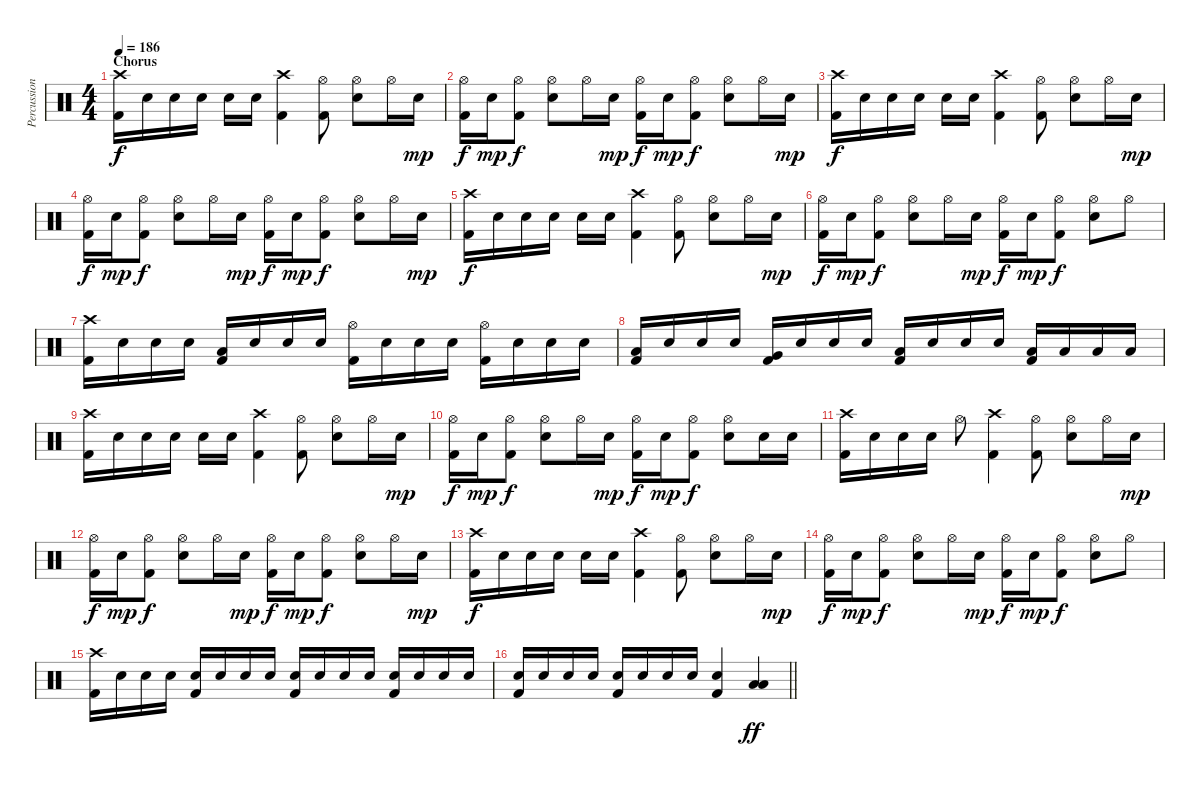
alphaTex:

\track ("Percussion" "Percussion") {instrument percussion}
\staff {score}
\articulation defaults
\ts (4 4)
\section ("" "Chorus")
\tempo 186
\clef neutral
\ks c
("Crash high (hit)" "Kick (hit) 2").16{dy f} "Electric Snare (hit)".16 "Electric Snare (hit)".16 "Electric Snare (hit)".16 "Electric Snare (hit)".16 "Electric Snare (hit)".16 ("Crash high (hit)" "Kick (hit) 2").4 ("Hi-Hat (open)" "Kick (hit) 2").8 ("Hi-Hat (open)" "Electric Snare (hit)").8 "Hi-Hat (open)".16 "Electric Snare (hit)".16{dy mp} |
("Hi-Hat (open)" "Kick (hit) 2").16{dy f} "Electric Snare (hit)".16{dy mp} ("Hi-Hat (open)" "Kick (hit) 2").8{dy f} ("Hi-Hat (open)" "Electric Snare (hit)").8 "Hi-Hat (open)".16 "Electric Snare (hit)".16{dy mp} ("Hi-Hat (open)" "Kick (hit) 2").16{dy f} "Electric Snare (hit)".16{dy mp} ("Hi-Hat (open)" "Kick (hit) 2").8{dy f} ("Hi-Hat (open)" "Electric Snare (hit)").8 "Hi-Hat (open)".16 "Electric Snare (hit)".16{dy mp} |
("Crash high (hit)" "Kick (hit) 2").16{dy f} "Electric Snare (hit)".16 "Electric Snare (hit)".16 "Electric Snare (hit)".16 "Electric Snare (hit)".16 "Electric Snare (hit)".16 ("Crash high (hit)" "Kick (hit) 2").4 ("Hi-Hat (open)" "Kick (hit) 2").8 ("Hi-Hat (open)" "Electric Snare (hit)").8 "Hi-Hat (open)".16 "Electric Snare (hit)".16{dy mp} |
("Hi-Hat (open)" "Kick (hit) 2").16{dy f} "Electric Snare (hit)".16{dy mp} ("Hi-Hat (open)" "Kick (hit) 2").8{dy f} ("Hi-Hat (open)" "Electric Snare (hit)").8 "Hi-Hat (open)".16 "Electric Snare (hit)".16{dy mp} ("Hi-Hat (open)" "Kick (hit) 2").16{dy f} "Electric Snare (hit)".16{dy mp} ("Hi-Hat (open)" "Kick (hit) 2").8{dy f} ("Hi-Hat (open)" "Electric Snare (hit)").8 "Hi-Hat (open)".16 "Electric Snare (hit)".16{dy mp} |
("Crash high (hit)" "Kick (hit) 2").16{dy f} "Electric Snare (hit)".16 "Electric Snare (hit)".16 "Electric Snare (hit)".16 "Electric Snare (hit)".16 "Electric Snare (hit)".16 ("Crash high (hit)" "Kick (hit) 2").4 ("Hi-Hat (open)" "Kick (hit) 2").8 ("Hi-Hat (open)" "Electric Snare (hit)").8 "Hi-Hat (open)".16 "Electric Snare (hit)".16{dy mp} |
("Hi-Hat (open)" "Kick (hit) 2").16{dy f} "Electric Snare (hit)".16{dy mp} ("Hi-Hat (open)" "Kick (hit) 2").8{dy f} ("Hi-Hat (open)" "Electric Snare (hit)").8 "Hi-Hat (open)".16 "Electric Snare (hit)".16{dy mp} ("Hi-Hat (open)" "Kick (hit) 2").16{dy f} "Electric Snare (hit)".16{dy mp} ("Hi-Hat (open)" "Kick (hit) 2").8{dy f} ("Hi-Hat (open)" "Electric Snare (hit)").8 "Hi-Hat (open)".8 |
("Crash high (hit)" "Kick (hit) 2").16 "Electric Snare (hit)".16 "Electric Snare (hit)".16 "Electric Snare (hit)".16 ("Low Tom (hit)" "Kick (hit) 2").16 "Electric Snare (hit)".16 "Electric Snare (hit)".16 "Electric Snare (hit)".16 ("Hi-Hat (open)" "Kick (hit) 2").16 "Electric Snare (hit)".16 "Electric Snare (hit)".16 "Electric Snare (hit)".16 ("Hi-Hat (open)" "Kick (hit) 2").16 "Electric Snare (hit)".16 "Electric Snare (hit)".16 "Electric Snare (hit)".16 |
("Low Tom (hit)" "Kick (hit) 2").16 "Electric Snare (hit)".16 "Electric Snare (hit)".16 "Electric Snare (hit)".16 ("Very Low Tom (hit)" "Kick (hit) 2").16 "Electric Snare (hit)".16 "Electric Snare (hit)".16 "Electric Snare (hit)".16 ("Low Floor Tom (hit)" "Kick (hit) 2").16 "Electric Snare (hit)".16 "Electric Snare (hit)".16 "Electric Snare (hit)".16 ("Low Floor Tom (hit)" "Kick (hit) 2").16 "Low Floor Tom (hit)".16 "Low Floor Tom (hit)".16 "Low Floor Tom (hit)".16 |
("Crash high (hit)" "Kick (hit) 2").16 "Electric Snare (hit)".16 "Electric Snare (hit)".16 "Electric Snare (hit)".16 "Electric Snare (hit)".16 "Electric Snare (hit)".16 ("Crash high (hit)" "Kick (hit) 2").4 ("Hi-Hat (open)" "Kick (hit) 2").8 ("Hi-Hat (open)" "Electric Snare (hit)").8 "Hi-Hat (open)".16 "Electric Snare (hit)".16{dy mp} |
("Hi-Hat (open)" "Kick (hit) 2").16{dy f} "Electric Snare (hit)".16{dy mp} ("Hi-Hat (open)" "Kick (hit) 2").8{dy f} ("Hi-Hat (open)" "Electric Snare (hit)").8 "Hi-Hat (open)".16 "Electric Snare (hit)".16{dy mp} ("Hi-Hat (open)" "Kick (hit) 2").16{dy f} "Electric Snare (hit)".16{dy mp} ("Hi-Hat (open)" "Kick (hit) 2").8{dy f} ("Hi-Hat (open)" "Electric Snare (hit)").8 "Electric Snare (hit)".16 "Electric Snare (hit)".16 |
("Crash high (hit)" "Kick (hit) 2").16 "Electric Snare (hit)".16 "Electric Snare (hit)".16 "Electric Snare (hit)".16 "Hi-Hat (open)".8 ("Crash high (hit)" "Kick (hit) 2").4 ("Hi-Hat (open)" "Kick (hit) 2").8 ("Hi-Hat (open)" "Electric Snare (hit)").8 "Hi-Hat (open)".16 "Electric Snare (hit)".16{dy mp} |
("Hi-Hat (open)" "Kick (hit) 2").16{dy f} "Electric Snare (hit)".16{dy mp} ("Hi-Hat (open)" "Kick (hit) 2").8{dy f} ("Hi-Hat (open)" "Electric Snare (hit)").8 "Hi-Hat (open)".16 "Electric Snare (hit)".16{dy mp} ("Hi-Hat (open)" "Kick (hit) 2").16{dy f} "Electric Snare (hit)".16{dy mp} ("Hi-Hat (open)" "Kick (hit) 2").8{dy f} ("Hi-Hat (open)" "Electric Snare (hit)").8 "Hi-Hat (open)".16 "Electric Snare (hit)".16{dy mp} |
("Crash high (hit)" "Kick (hit) 2").16{dy f} "Electric Snare (hit)".16 "Electric Snare (hit)".16 "Electric Snare (hit)".16 "Electric Snare (hit)".16 "Electric Snare (hit)".16 ("Crash high (hit)" "Kick (hit) 2").4 ("Hi-Hat (open)" "Kick (hit) 2").8 ("Hi-Hat (open)" "Electric Snare (hit)").8 "Hi-Hat (open)".16 "Electric Snare (hit)".16{dy mp} |
("Hi-Hat (open)" "Kick (hit) 2").16{dy f} "Electric Snare (hit)".16{dy mp} ("Hi-Hat (open)" "Kick (hit) 2").8{dy f} ("Hi-Hat (open)" "Electric Snare (hit)").8 "Hi-Hat (open)".16 "Electric Snare (hit)".16{dy mp} ("Hi-Hat (open)" "Kick (hit) 2").16{dy f} "Electric Snare (hit)".16{dy mp} ("Hi-Hat (open)" "Kick (hit) 2").8{dy f} ("Hi-Hat (open)" "Electric Snare (hit)").8 "Hi-Hat (open)".8 |
("Crash high (hit)" "Kick (hit) 2").16 "Electric Snare (hit)".16 "Electric Snare (hit)".16 "Electric Snare (hit)".16 ("Electric Snare (hit)" "Kick (hit) 2").16 "Electric Snare (hit)".16 "Electric Snare (hit)".16 "Electric Snare (hit)".16 ("Electric Snare (hit)" "Kick (hit) 2").16 "Electric Snare (hit)".16 "Electric Snare (hit)".16 "Electric Snare (hit)".16 ("Electric Snare (hit)" "Kick (hit) 2").16 "Electric Snare (hit)".16 "Electric Snare (hit)".16 "Electric Snare (hit)".16 |
\barLineRight lightlight
("Electric Snare (hit)" "Kick (hit) 2").16 "Electric Snare (hit)".16 "Electric Snare (hit)".16 "Electric Snare (hit)".16 ("Electric Snare (hit)" "Kick (hit) 2").16 "Electric Snare (hit)".16 "Electric Snare (hit)".16 "Electric Snare (hit)".16 ("Electric Snare (hit)" "Kick (hit) 2").4 ("Low Tom (hit)" "Low Floor Tom (hit)").4{dy ff}
